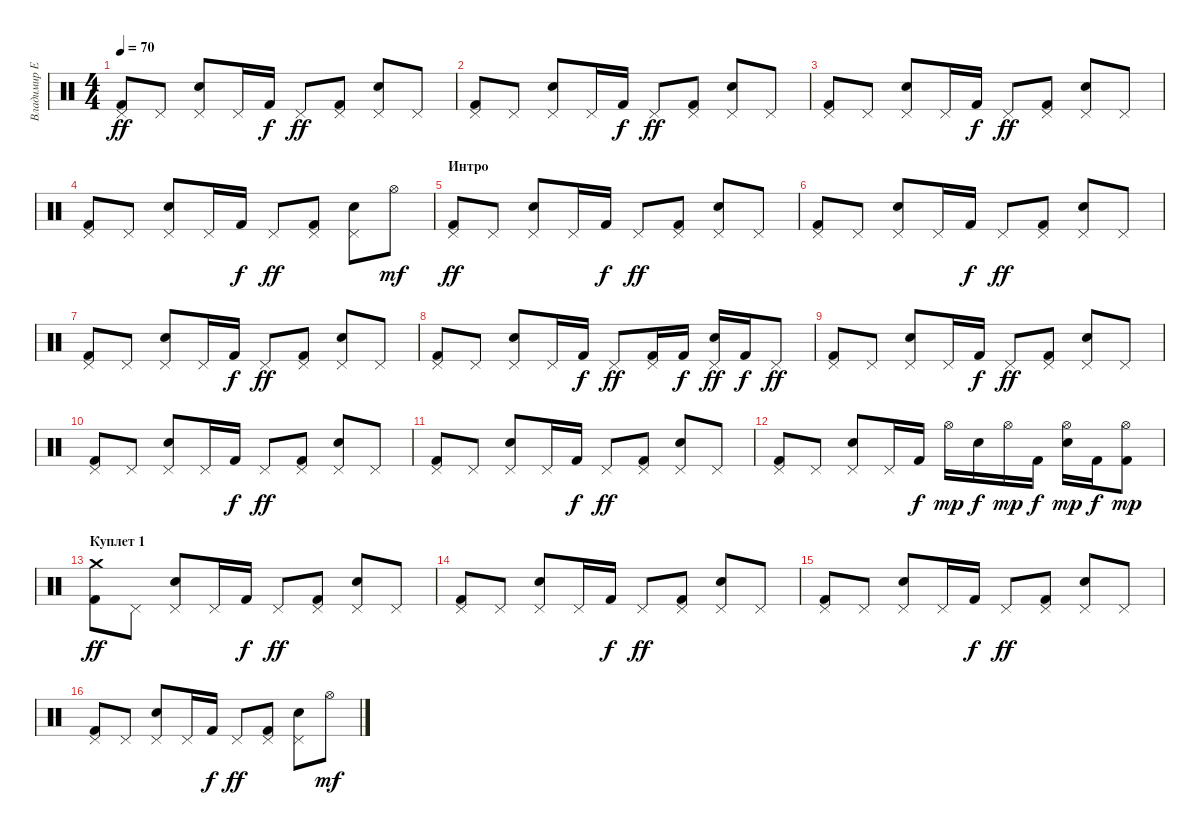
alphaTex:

\track ("Владимир Ермаков" "Владимир Е") {instrument percussion}
\staff {score}
\articulation defaults
\ts (4 4)
\tempo 70
\clef neutral
\ks c
("Pedal Hi-Hat (hit)" "Kick (hit) 2").8{dy ff} "Pedal Hi-Hat (hit)".8 ("Pedal Hi-Hat (hit)" "Electric Snare (hit)").8 "Pedal Hi-Hat (hit)".16 "Kick (hit) 2".16{dy f} "Pedal Hi-Hat (hit)".8{dy ff} ("Pedal Hi-Hat (hit)" "Kick (hit) 2").8 ("Pedal Hi-Hat (hit)" "Electric Snare (hit)").8 "Pedal Hi-Hat (hit)".8 |
("Pedal Hi-Hat (hit)" "Kick (hit) 2").8 "Pedal Hi-Hat (hit)".8 ("Pedal Hi-Hat (hit)" "Electric Snare (hit)").8 "Pedal Hi-Hat (hit)".16 "Kick (hit) 2".16{dy f} "Pedal Hi-Hat (hit)".8{dy ff} ("Pedal Hi-Hat (hit)" "Kick (hit) 2").8 ("Pedal Hi-Hat (hit)" "Electric Snare (hit)").8 "Pedal Hi-Hat (hit)".8 |
("Pedal Hi-Hat (hit)" "Kick (hit) 2").8 "Pedal Hi-Hat (hit)".8 ("Pedal Hi-Hat (hit)" "Electric Snare (hit)").8 "Pedal Hi-Hat (hit)".16 "Kick (hit) 2".16{dy f} "Pedal Hi-Hat (hit)".8{dy ff} ("Pedal Hi-Hat (hit)" "Kick (hit) 2").8 ("Pedal Hi-Hat (hit)" "Electric Snare (hit)").8 "Pedal Hi-Hat (hit)".8 |
("Pedal Hi-Hat (hit)" "Kick (hit) 2").8 "Pedal Hi-Hat (hit)".8 ("Pedal Hi-Hat (hit)" "Electric Snare (hit)").8 "Pedal Hi-Hat (hit)".16 "Kick (hit) 2".16{dy f} "Pedal Hi-Hat (hit)".8{dy ff} ("Pedal Hi-Hat (hit)" "Kick (hit) 2").8 ("Pedal Hi-Hat (hit)" "Electric Snare (hit)").8 "Hi-Hat (open)".8{dy mf} |
\section ("" "Интро")
("Pedal Hi-Hat (hit)" "Kick (hit) 2").8{dy ff} "Pedal Hi-Hat (hit)".8 ("Pedal Hi-Hat (hit)" "Electric Snare (hit)").8 "Pedal Hi-Hat (hit)".16 "Kick (hit) 2".16{dy f} "Pedal Hi-Hat (hit)".8{dy ff} ("Pedal Hi-Hat (hit)" "Kick (hit) 2").8 ("Pedal Hi-Hat (hit)" "Electric Snare (hit)").8 "Pedal Hi-Hat (hit)".8 |
("Pedal Hi-Hat (hit)" "Kick (hit) 2").8 "Pedal Hi-Hat (hit)".8 ("Pedal Hi-Hat (hit)" "Electric Snare (hit)").8 "Pedal Hi-Hat (hit)".16 "Kick (hit) 2".16{dy f} "Pedal Hi-Hat (hit)".8{dy ff} ("Pedal Hi-Hat (hit)" "Kick (hit) 2").8 ("Pedal Hi-Hat (hit)" "Electric Snare (hit)").8 "Pedal Hi-Hat (hit)".8 |
("Pedal Hi-Hat (hit)" "Kick (hit) 2").8 "Pedal Hi-Hat (hit)".8 ("Pedal Hi-Hat (hit)" "Electric Snare (hit)").8 "Pedal Hi-Hat (hit)".16 "Kick (hit) 2".16{dy f} "Pedal Hi-Hat (hit)".8{dy ff} ("Pedal Hi-Hat (hit)" "Kick (hit) 2").8 ("Pedal Hi-Hat (hit)" "Electric Snare (hit)").8 "Pedal Hi-Hat (hit)".8 |
("Pedal Hi-Hat (hit)" "Kick (hit) 2").8 "Pedal Hi-Hat (hit)".8 ("Pedal Hi-Hat (hit)" "Electric Snare (hit)").8 "Pedal Hi-Hat (hit)".16 "Kick (hit) 2".16{dy f} "Pedal Hi-Hat (hit)".8{dy ff} ("Pedal Hi-Hat (hit)" "Kick (hit) 2").16 "Kick (hit) 2".16{dy f} ("Pedal Hi-Hat (hit)" "Electric Snare (hit)").16{dy ff} "Kick (hit) 2".16{dy f} "Pedal Hi-Hat (hit)".8{dy ff} |
("Pedal Hi-Hat (hit)" "Kick (hit) 2").8 "Pedal Hi-Hat (hit)".8 ("Pedal Hi-Hat (hit)" "Electric Snare (hit)").8 "Pedal Hi-Hat (hit)".16 "Kick (hit) 2".16{dy f} "Pedal Hi-Hat (hit)".8{dy ff} ("Pedal Hi-Hat (hit)" "Kick (hit) 2").8 ("Pedal Hi-Hat (hit)" "Electric Snare (hit)").8 "Pedal Hi-Hat (hit)".8 |
("Pedal Hi-Hat (hit)" "Kick (hit) 2").8 "Pedal Hi-Hat (hit)".8 ("Pedal Hi-Hat (hit)" "Electric Snare (hit)").8 "Pedal Hi-Hat (hit)".16 "Kick (hit) 2".16{dy f} "Pedal Hi-Hat (hit)".8{dy ff} ("Pedal Hi-Hat (hit)" "Kick (hit) 2").8 ("Pedal Hi-Hat (hit)" "Electric Snare (hit)").8 "Pedal Hi-Hat (hit)".8 |
("Pedal Hi-Hat (hit)" "Kick (hit) 2").8 "Pedal Hi-Hat (hit)".8 ("Pedal Hi-Hat (hit)" "Electric Snare (hit)").8 "Pedal Hi-Hat (hit)".16 "Kick (hit) 2".16{dy f} "Pedal Hi-Hat (hit)".8{dy ff} ("Pedal Hi-Hat (hit)" "Kick (hit) 2").8 ("Pedal Hi-Hat (hit)" "Electric Snare (hit)").8 "Pedal Hi-Hat (hit)".8 |
("Pedal Hi-Hat (hit)" "Kick (hit) 2").8 "Pedal Hi-Hat (hit)".8 ("Pedal Hi-Hat (hit)" "Electric Snare (hit)").8 "Pedal Hi-Hat (hit)".16 "Kick (hit) 2".16{dy f} "Hi-Hat (open)".16{dy mp} "Electric Snare (hit)".16{dy f} "Hi-Hat (open)".16{dy mp} "Kick (hit) 2".16{dy f} ("Hi-Hat (open)" "Electric Snare (hit)").16{dy mp} "Kick (hit) 2".16{dy f} ("Hi-Hat (open)" "Kick (hit) 2").8{dy mp} |
\section ("" "Куплет 1")
("Crash medium (hit)" "Kick (hit) 2").8{dy ff} "Pedal Hi-Hat (hit)".8 ("Pedal Hi-Hat (hit)" "Electric Snare (hit)").8 "Pedal Hi-Hat (hit)".16 "Kick (hit) 2".16{dy f} "Pedal Hi-Hat (hit)".8{dy ff} ("Pedal Hi-Hat (hit)" "Kick (hit) 2").8 ("Pedal Hi-Hat (hit)" "Electric Snare (hit)").8 "Pedal Hi-Hat (hit)".8 |
("Pedal Hi-Hat (hit)" "Kick (hit) 2").8 "Pedal Hi-Hat (hit)".8 ("Pedal Hi-Hat (hit)" "Electric Snare (hit)").8 "Pedal Hi-Hat (hit)".16 "Kick (hit) 2".16{dy f} "Pedal Hi-Hat (hit)".8{dy ff} ("Pedal Hi-Hat (hit)" "Kick (hit) 2").8 ("Pedal Hi-Hat (hit)" "Electric Snare (hit)").8 "Pedal Hi-Hat (hit)".8 |
("Pedal Hi-Hat (hit)" "Kick (hit) 2").8 "Pedal Hi-Hat (hit)".8 ("Pedal Hi-Hat (hit)" "Electric Snare (hit)").8 "Pedal Hi-Hat (hit)".16 "Kick (hit) 2".16{dy f} "Pedal Hi-Hat (hit)".8{dy ff} ("Pedal Hi-Hat (hit)" "Kick (hit) 2").8 ("Pedal Hi-Hat (hit)" "Electric Snare (hit)").8 "Pedal Hi-Hat (hit)".8 |
("Pedal Hi-Hat (hit)" "Kick (hit) 2").8 "Pedal Hi-Hat (hit)".8 ("Pedal Hi-Hat (hit)" "Electric Snare (hit)").8 "Pedal Hi-Hat (hit)".16 "Kick (hit) 2".16{dy f} "Pedal Hi-Hat (hit)".8{dy ff} ("Pedal Hi-Hat (hit)" "Kick (hit) 2").8 ("Pedal Hi-Hat (hit)" "Electric Snare (hit)").8 "Hi-Hat (open)".8{dy mf}
